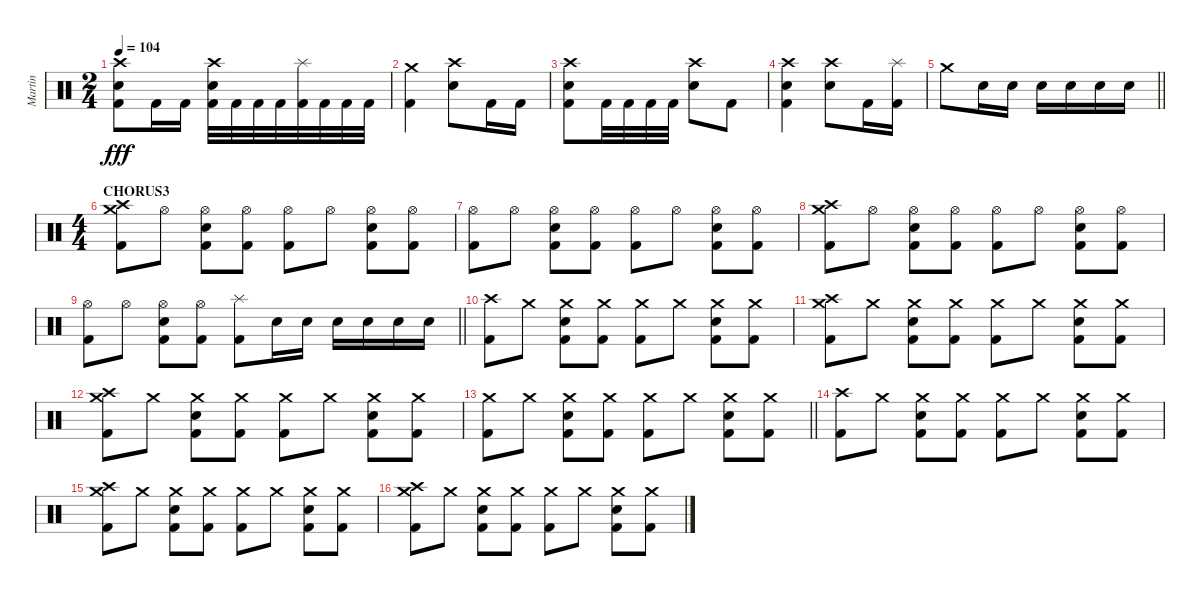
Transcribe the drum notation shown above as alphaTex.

\track ("Martin" "Martin") {instrument percussion}
\staff {score}
\articulation defaults
\ts (2 4)
\tempo 104
\clef neutral
\ks c
("Crash high (hit)" "Electric Snare (hit)" "Kick (hit) 2").8{dy fff} "Kick (hit) 2".16 "Kick (hit) 2".16 ("Crash high (hit)" "Electric Snare (hit)" "Kick (hit) 2").32 "Kick (hit) 2".32 "Kick (hit) 2".32 "Kick (hit) 2".32 ("Splash (hit)" "Kick (hit) 2").32 "Kick (hit) 2".32 "Kick (hit) 2".32 "Kick (hit) 2".32 |
("Crash medium (hit)" "Kick (hit) 2").4 ("Crash high (hit)" "Electric Snare (hit)").8 "Kick (hit) 2".16 "Kick (hit) 2".16 |
("Crash high (hit)" "Electric Snare (hit)" "Kick (hit) 2").8 "Kick (hit) 2".32 "Kick (hit) 2".32 "Kick (hit) 2".32 "Kick (hit) 2".32 ("Crash high (hit)" "Electric Snare (hit)").8 "Kick (hit) 2".8 |
("Crash high (hit)" "Electric Snare (hit)" "Kick (hit) 2").4 ("Crash high (hit)" "Electric Snare (hit)").8 "Kick (hit) 2".16 ("Splash (hit)" "Kick (hit) 2").16 |
\barLineRight lightlight "Crash medium (hit)".8 "Electric Snare (hit)".16 "Electric Snare (hit)".16 "Electric Snare (hit)".16 "Electric Snare (hit)".16 "Electric Snare (hit)".16 "Electric Snare (hit)".16
|
\ts (4 4)
\section ("" "CHORUS3")
("Crash high (hit)" "Crash medium (hit)" "Kick (hit) 2").8 "Hi-Hat (open)".8 ("Hi-Hat (open)" "Electric Snare (hit)" "Kick (hit) 2").8 ("Hi-Hat (open)" "Kick (hit) 2").8 ("Hi-Hat (open)" "Kick (hit) 2").8 "Hi-Hat (open)".8 ("Hi-Hat (open)" "Electric Snare (hit)" "Kick (hit) 2").8 ("Hi-Hat (open)" "Kick (hit) 2").8 |
("Hi-Hat (open)" "Kick (hit) 2").8 "Hi-Hat (open)".8 ("Hi-Hat (open)" "Electric Snare (hit)" "Kick (hit) 2").8 ("Hi-Hat (open)" "Kick (hit) 2").8 ("Hi-Hat (open)" "Kick (hit) 2").8 "Hi-Hat (open)".8 ("Hi-Hat (open)" "Electric Snare (hit)" "Kick (hit) 2").8 ("Hi-Hat (open)" "Kick (hit) 2").8 |
("Crash high (hit)" "Crash medium (hit)" "Kick (hit) 2").8 "Hi-Hat (open)".8 ("Hi-Hat (open)" "Electric Snare (hit)" "Kick (hit) 2").8 ("Hi-Hat (open)" "Kick (hit) 2").8 ("Hi-Hat (open)" "Kick (hit) 2").8 "Hi-Hat (open)".8 ("Hi-Hat (open)" "Electric Snare (hit)" "Kick (hit) 2").8 ("Hi-Hat (open)" "Kick (hit) 2").8 |
\barLineRight lightlight
("Hi-Hat (open)" "Kick (hit) 2").8 "Hi-Hat (open)".8 ("Hi-Hat (open)" "Electric Snare (hit)" "Kick (hit) 2").8 ("Hi-Hat (open)" "Kick (hit) 2").8 ("Splash (hit)" "Kick (hit) 2").8 "Electric Snare (hit)".16 "Electric Snare (hit)".16 "Electric Snare (hit)".16 "Electric Snare (hit)".16 "Electric Snare (hit)".16 "Electric Snare (hit)".16 |
("Crash high (hit)" "Kick (hit) 2").8 "Crash medium (hit)".8 ("Crash medium (hit)" "Electric Snare (hit)" "Kick (hit) 2").8 ("Crash medium (hit)" "Kick (hit) 2").8 ("Crash medium (hit)" "Kick (hit) 2").8 "Crash medium (hit)".8 ("Crash medium (hit)" "Electric Snare (hit)" "Kick (hit) 2").8 ("Crash medium (hit)" "Kick (hit) 2").8 |
("Crash high (hit)" "Crash medium (hit)" "Kick (hit) 2").8 "Crash medium (hit)".8 ("Crash medium (hit)" "Electric Snare (hit)" "Kick (hit) 2").8 ("Crash medium (hit)" "Kick (hit) 2").8 ("Crash medium (hit)" "Kick (hit) 2").8 "Crash medium (hit)".8 ("Crash medium (hit)" "Electric Snare (hit)" "Kick (hit) 2").8 ("Crash medium (hit)" "Kick (hit) 2").8 |
("Crash high (hit)" "Crash medium (hit)" "Kick (hit) 2").8 "Crash medium (hit)".8 ("Crash medium (hit)" "Electric Snare (hit)" "Kick (hit) 2").8 ("Crash medium (hit)" "Kick (hit) 2").8 ("Crash medium (hit)" "Kick (hit) 2").8 "Crash medium (hit)".8 ("Crash medium (hit)" "Electric Snare (hit)" "Kick (hit) 2").8 ("Crash medium (hit)" "Kick (hit) 2").8 |
\barLineRight lightlight
("Crash medium (hit)" "Kick (hit) 2").8 "Crash medium (hit)".8 ("Crash medium (hit)" "Electric Snare (hit)" "Kick (hit) 2").8 ("Crash medium (hit)" "Kick (hit) 2").8 ("Crash medium (hit)" "Kick (hit) 2").8 "Crash medium (hit)".8 ("Crash medium (hit)" "Electric Snare (hit)" "Kick (hit) 2").8 ("Crash medium (hit)" "Kick (hit) 2").8 |
("Crash high (hit)" "Kick (hit) 2").8 "Crash medium (hit)".8 ("Crash medium (hit)" "Electric Snare (hit)" "Kick (hit) 2").8 ("Crash medium (hit)" "Kick (hit) 2").8 ("Crash medium (hit)" "Kick (hit) 2").8 "Crash medium (hit)".8 ("Crash medium (hit)" "Electric Snare (hit)" "Kick (hit) 2").8 ("Crash medium (hit)" "Kick (hit) 2").8 |
("Crash high (hit)" "Crash medium (hit)" "Kick (hit) 2").8 "Crash medium (hit)".8 ("Crash medium (hit)" "Electric Snare (hit)" "Kick (hit) 2").8 ("Crash medium (hit)" "Kick (hit) 2").8 ("Crash medium (hit)" "Kick (hit) 2").8 "Crash medium (hit)".8 ("Crash medium (hit)" "Electric Snare (hit)" "Kick (hit) 2").8 ("Crash medium (hit)" "Kick (hit) 2").8 |
("Crash high (hit)" "Crash medium (hit)" "Kick (hit) 2").8 "Crash medium (hit)".8 ("Crash medium (hit)" "Electric Snare (hit)" "Kick (hit) 2").8 ("Crash medium (hit)" "Kick (hit) 2").8 ("Crash medium (hit)" "Kick (hit) 2").8 "Crash medium (hit)".8 ("Crash medium (hit)" "Electric Snare (hit)" "Kick (hit) 2").8 ("Crash medium (hit)" "Kick (hit) 2").8
